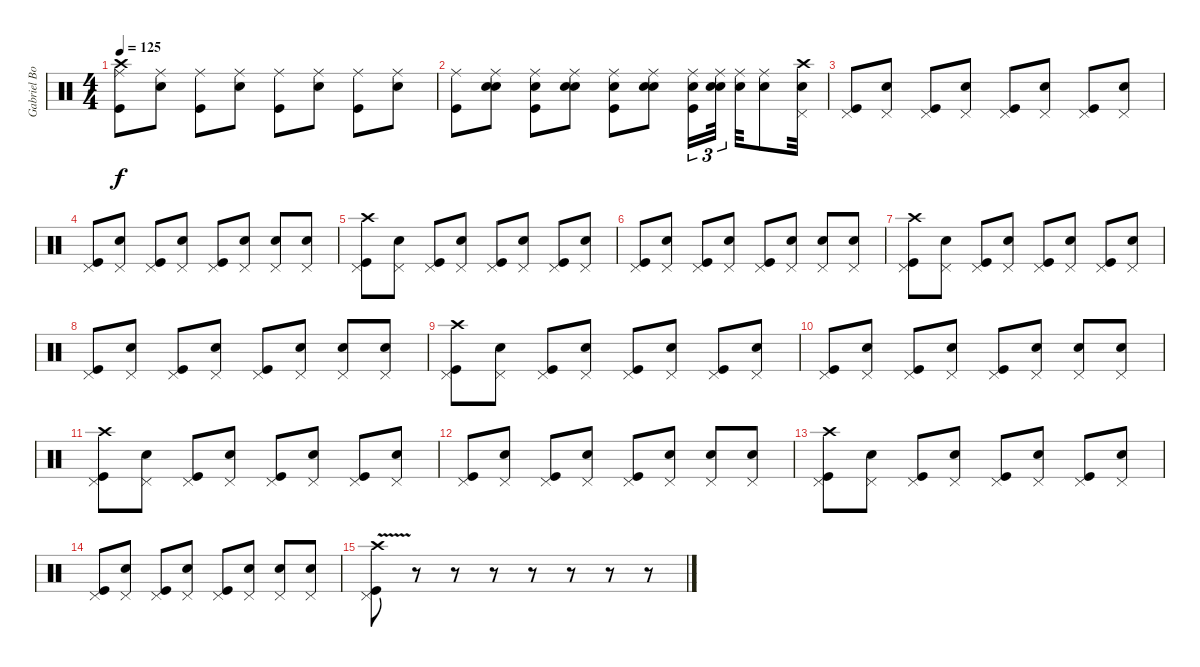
\track ("Gabriel Boizinho" "Gabriel Bo") {instrument percussion}
\staff {score}
\articulation defaults
\ts (4 4)
\tempo 125
\clef neutral
\ks c
("Crash high (hit)" "Ride (middle)" "Kick (hit)").8{dy f} ("Ride (middle)" "Electric Snare (hit)").8 ("Ride (middle)" "Kick (hit)").8 ("Ride (middle)" "Electric Snare (hit)").8 ("Ride (middle)" "Kick (hit)").8 ("Ride (middle)" "Electric Snare (hit)").8 ("Ride (middle)" "Kick (hit)").8 ("Ride (middle)" "Electric Snare (hit)").8 |
("Ride (middle)" "Kick (hit)").8 ("Electric Snare (hit)" "Ride (middle)" "Electric Snare (hit)").8 ("Electric Snare (hit)" "Ride (middle)" "Kick (hit)").8 ("Electric Snare (hit)" "Ride (middle)" "Electric Snare (hit)").8 ("Electric Snare (hit)" "Ride (middle)" "Kick (hit)").8 ("Electric Snare (hit)" "Ride (middle)" "Electric Snare (hit)").8 ("Electric Snare (hit)" "Ride (middle)" "Kick (hit)").16{tu (3 2)} ("Electric Snare (hit)" "Ride (middle)" "Electric Snare (hit)").32{tu (3 2)} ("Ride (middle)" "Electric Snare (hit)").32 ("Ride (middle)" "Electric Snare (hit)").8 ("Crash high (hit)" "Pedal Hi-Hat (hit)" "Electric Snare (hit)").32 |
("Pedal Hi-Hat (hit)" "Kick (hit)").8 ("Pedal Hi-Hat (hit)" "Electric Snare (hit)").8 ("Pedal Hi-Hat (hit)" "Kick (hit)").8 ("Pedal Hi-Hat (hit)" "Electric Snare (hit)").8 ("Pedal Hi-Hat (hit)" "Kick (hit)").8 ("Pedal Hi-Hat (hit)" "Electric Snare (hit)").8 ("Pedal Hi-Hat (hit)" "Kick (hit)").8 ("Pedal Hi-Hat (hit)" "Electric Snare (hit)").8 |
("Pedal Hi-Hat (hit)" "Kick (hit)").8 ("Pedal Hi-Hat (hit)" "Electric Snare (hit)").8 ("Pedal Hi-Hat (hit)" "Kick (hit)").8 ("Pedal Hi-Hat (hit)" "Electric Snare (hit)").8 ("Pedal Hi-Hat (hit)" "Kick (hit)").8 ("Pedal Hi-Hat (hit)" "Electric Snare (hit)").8 ("Pedal Hi-Hat (hit)" "Electric Snare (hit)").8 ("Pedal Hi-Hat (hit)" "Electric Snare (hit)").8 |
("Crash high (hit)" "Pedal Hi-Hat (hit)" "Kick (hit)").8 ("Pedal Hi-Hat (hit)" "Electric Snare (hit)").8 ("Pedal Hi-Hat (hit)" "Kick (hit)").8 ("Pedal Hi-Hat (hit)" "Electric Snare (hit)").8 ("Pedal Hi-Hat (hit)" "Kick (hit)").8 ("Pedal Hi-Hat (hit)" "Electric Snare (hit)").8 ("Pedal Hi-Hat (hit)" "Kick (hit)").8 ("Pedal Hi-Hat (hit)" "Electric Snare (hit)").8 |
("Pedal Hi-Hat (hit)" "Kick (hit)").8 ("Pedal Hi-Hat (hit)" "Electric Snare (hit)").8 ("Pedal Hi-Hat (hit)" "Kick (hit)").8 ("Pedal Hi-Hat (hit)" "Electric Snare (hit)").8 ("Pedal Hi-Hat (hit)" "Kick (hit)").8 ("Pedal Hi-Hat (hit)" "Electric Snare (hit)").8 ("Pedal Hi-Hat (hit)" "Electric Snare (hit)").8 ("Pedal Hi-Hat (hit)" "Electric Snare (hit)").8 |
("Crash high (hit)" "Pedal Hi-Hat (hit)" "Kick (hit)").8 ("Pedal Hi-Hat (hit)" "Electric Snare (hit)").8 ("Pedal Hi-Hat (hit)" "Kick (hit)").8 ("Pedal Hi-Hat (hit)" "Electric Snare (hit)").8 ("Pedal Hi-Hat (hit)" "Kick (hit)").8 ("Pedal Hi-Hat (hit)" "Electric Snare (hit)").8 ("Pedal Hi-Hat (hit)" "Kick (hit)").8 ("Pedal Hi-Hat (hit)" "Electric Snare (hit)").8 |
("Pedal Hi-Hat (hit)" "Kick (hit)").8 ("Pedal Hi-Hat (hit)" "Electric Snare (hit)").8 ("Pedal Hi-Hat (hit)" "Kick (hit)").8 ("Pedal Hi-Hat (hit)" "Electric Snare (hit)").8 ("Pedal Hi-Hat (hit)" "Kick (hit)").8 ("Pedal Hi-Hat (hit)" "Electric Snare (hit)").8 ("Pedal Hi-Hat (hit)" "Electric Snare (hit)").8 ("Pedal Hi-Hat (hit)" "Electric Snare (hit)").8 |
("Crash high (hit)" "Pedal Hi-Hat (hit)" "Kick (hit)").8 ("Pedal Hi-Hat (hit)" "Electric Snare (hit)").8 ("Pedal Hi-Hat (hit)" "Kick (hit)").8 ("Pedal Hi-Hat (hit)" "Electric Snare (hit)").8 ("Pedal Hi-Hat (hit)" "Kick (hit)").8 ("Pedal Hi-Hat (hit)" "Electric Snare (hit)").8 ("Pedal Hi-Hat (hit)" "Kick (hit)").8 ("Pedal Hi-Hat (hit)" "Electric Snare (hit)").8 |
("Pedal Hi-Hat (hit)" "Kick (hit)").8 ("Pedal Hi-Hat (hit)" "Electric Snare (hit)").8 ("Pedal Hi-Hat (hit)" "Kick (hit)").8 ("Pedal Hi-Hat (hit)" "Electric Snare (hit)").8 ("Pedal Hi-Hat (hit)" "Kick (hit)").8 ("Pedal Hi-Hat (hit)" "Electric Snare (hit)").8 ("Pedal Hi-Hat (hit)" "Electric Snare (hit)").8 ("Pedal Hi-Hat (hit)" "Electric Snare (hit)").8 |
("Crash high (hit)" "Pedal Hi-Hat (hit)" "Kick (hit)").8 ("Pedal Hi-Hat (hit)" "Electric Snare (hit)").8 ("Pedal Hi-Hat (hit)" "Kick (hit)").8 ("Pedal Hi-Hat (hit)" "Electric Snare (hit)").8 ("Pedal Hi-Hat (hit)" "Kick (hit)").8 ("Pedal Hi-Hat (hit)" "Electric Snare (hit)").8 ("Pedal Hi-Hat (hit)" "Kick (hit)").8 ("Pedal Hi-Hat (hit)" "Electric Snare (hit)").8 |
("Pedal Hi-Hat (hit)" "Kick (hit)").8 ("Pedal Hi-Hat (hit)" "Electric Snare (hit)").8 ("Pedal Hi-Hat (hit)" "Kick (hit)").8 ("Pedal Hi-Hat (hit)" "Electric Snare (hit)").8 ("Pedal Hi-Hat (hit)" "Kick (hit)").8 ("Pedal Hi-Hat (hit)" "Electric Snare (hit)").8 ("Pedal Hi-Hat (hit)" "Electric Snare (hit)").8 ("Pedal Hi-Hat (hit)" "Electric Snare (hit)").8 |
("Crash high (hit)" "Pedal Hi-Hat (hit)" "Kick (hit)").8 ("Pedal Hi-Hat (hit)" "Electric Snare (hit)").8 ("Pedal Hi-Hat (hit)" "Kick (hit)").8 ("Pedal Hi-Hat (hit)" "Electric Snare (hit)").8 ("Pedal Hi-Hat (hit)" "Kick (hit)").8 ("Pedal Hi-Hat (hit)" "Electric Snare (hit)").8 ("Pedal Hi-Hat (hit)" "Kick (hit)").8 ("Pedal Hi-Hat (hit)" "Electric Snare (hit)").8 |
("Pedal Hi-Hat (hit)" "Kick (hit)").8 ("Pedal Hi-Hat (hit)" "Electric Snare (hit)").8 ("Pedal Hi-Hat (hit)" "Kick (hit)").8 ("Pedal Hi-Hat (hit)" "Electric Snare (hit)").8 ("Pedal Hi-Hat (hit)" "Kick (hit)").8 ("Pedal Hi-Hat (hit)" "Electric Snare (hit)").8 ("Pedal Hi-Hat (hit)" "Electric Snare (hit)").8 ("Pedal Hi-Hat (hit)" "Electric Snare (hit)").8 |
("Crash high (hit)"{v} "Pedal Hi-Hat (hit)" "Kick (hit)").8 r.8 r.8 r.8 r.8 r.8 r.8 r.8
